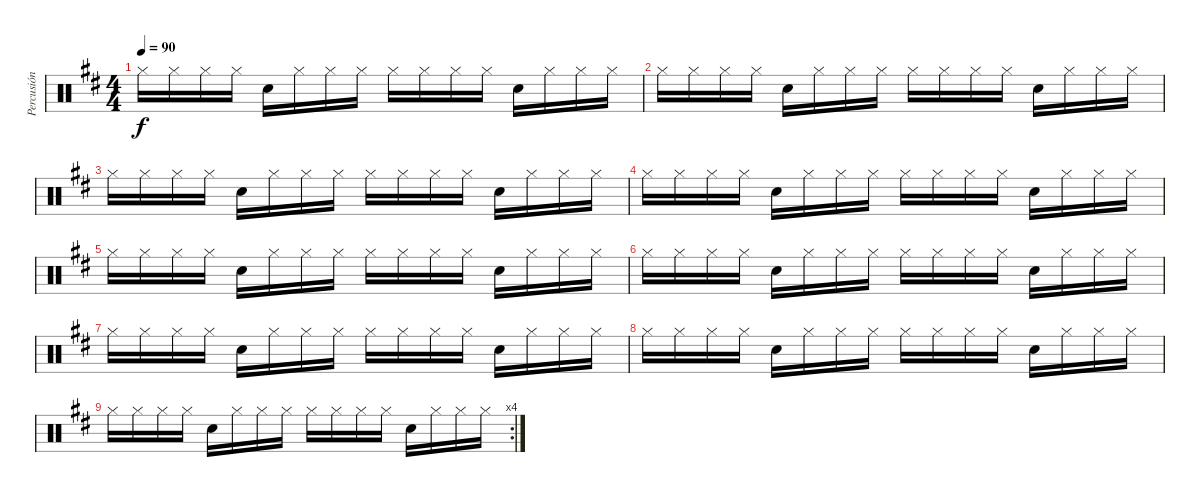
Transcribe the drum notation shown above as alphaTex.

\track ("Percusión" "Percusión") {instrument percussion}
\staff {score}
\articulation defaults
\ts (4 4)
\tempo 90
\clef neutral
\ks d "Hi-Hat (closed)".16{dy f} "Hi-Hat (closed)".16 "Hi-Hat (closed)".16 "Hi-Hat (closed)".16 "Snare (hit) 2".16 "Hi-Hat (closed)".16 "Hi-Hat (closed)".16 "Hi-Hat (closed)".16 "Hi-Hat (closed)".16 "Hi-Hat (closed)".16 "Hi-Hat (closed)".16 "Hi-Hat (closed)".16 "Snare (hit) 2".16 "Hi-Hat (closed)".16 "Hi-Hat (closed)".16 "Hi-Hat (closed)".16
|
"Hi-Hat (closed)".16 "Hi-Hat (closed)".16 "Hi-Hat (closed)".16 "Hi-Hat (closed)".16 "Snare (hit) 2".16 "Hi-Hat (closed)".16 "Hi-Hat (closed)".16 "Hi-Hat (closed)".16 "Hi-Hat (closed)".16 "Hi-Hat (closed)".16 "Hi-Hat (closed)".16 "Hi-Hat (closed)".16 "Snare (hit) 2".16 "Hi-Hat (closed)".16 "Hi-Hat (closed)".16 "Hi-Hat (closed)".16 |
"Hi-Hat (closed)".16 "Hi-Hat (closed)".16 "Hi-Hat (closed)".16 "Hi-Hat (closed)".16 "Snare (hit) 2".16 "Hi-Hat (closed)".16 "Hi-Hat (closed)".16 "Hi-Hat (closed)".16 "Hi-Hat (closed)".16 "Hi-Hat (closed)".16 "Hi-Hat (closed)".16 "Hi-Hat (closed)".16 "Snare (hit) 2".16 "Hi-Hat (closed)".16 "Hi-Hat (closed)".16 "Hi-Hat (closed)".16 |
"Hi-Hat (closed)".16 "Hi-Hat (closed)".16 "Hi-Hat (closed)".16 "Hi-Hat (closed)".16 "Snare (hit) 2".16 "Hi-Hat (closed)".16 "Hi-Hat (closed)".16 "Hi-Hat (closed)".16 "Hi-Hat (closed)".16 "Hi-Hat (closed)".16 "Hi-Hat (closed)".16 "Hi-Hat (closed)".16 "Snare (hit) 2".16 "Hi-Hat (closed)".16 "Hi-Hat (closed)".16 "Hi-Hat (closed)".16 |
"Hi-Hat (closed)".16 "Hi-Hat (closed)".16 "Hi-Hat (closed)".16 "Hi-Hat (closed)".16 "Snare (hit) 2".16 "Hi-Hat (closed)".16 "Hi-Hat (closed)".16 "Hi-Hat (closed)".16 "Hi-Hat (closed)".16 "Hi-Hat (closed)".16 "Hi-Hat (closed)".16 "Hi-Hat (closed)".16 "Snare (hit) 2".16 "Hi-Hat (closed)".16 "Hi-Hat (closed)".16 "Hi-Hat (closed)".16 |
"Hi-Hat (closed)".16 "Hi-Hat (closed)".16 "Hi-Hat (closed)".16 "Hi-Hat (closed)".16 "Snare (hit) 2".16 "Hi-Hat (closed)".16 "Hi-Hat (closed)".16 "Hi-Hat (closed)".16 "Hi-Hat (closed)".16 "Hi-Hat (closed)".16 "Hi-Hat (closed)".16 "Hi-Hat (closed)".16 "Snare (hit) 2".16 "Hi-Hat (closed)".16 "Hi-Hat (closed)".16 "Hi-Hat (closed)".16 |
"Hi-Hat (closed)".16 "Hi-Hat (closed)".16 "Hi-Hat (closed)".16 "Hi-Hat (closed)".16 "Snare (hit) 2".16 "Hi-Hat (closed)".16 "Hi-Hat (closed)".16 "Hi-Hat (closed)".16 "Hi-Hat (closed)".16 "Hi-Hat (closed)".16 "Hi-Hat (closed)".16 "Hi-Hat (closed)".16 "Snare (hit) 2".16 "Hi-Hat (closed)".16 "Hi-Hat (closed)".16 "Hi-Hat (closed)".16 |
"Hi-Hat (closed)".16 "Hi-Hat (closed)".16 "Hi-Hat (closed)".16 "Hi-Hat (closed)".16 "Snare (hit) 2".16 "Hi-Hat (closed)".16 "Hi-Hat (closed)".16 "Hi-Hat (closed)".16 "Hi-Hat (closed)".16 "Hi-Hat (closed)".16 "Hi-Hat (closed)".16 "Hi-Hat (closed)".16 "Snare (hit) 2".16 "Hi-Hat (closed)".16 "Hi-Hat (closed)".16 "Hi-Hat (closed)".16 |
\rc 4 "Hi-Hat (closed)".16 "Hi-Hat (closed)".16 "Hi-Hat (closed)".16 "Hi-Hat (closed)".16 "Snare (hit) 2".16 "Hi-Hat (closed)".16 "Hi-Hat (closed)".16 "Hi-Hat (closed)".16 "Hi-Hat (closed)".16 "Hi-Hat (closed)".16 "Hi-Hat (closed)".16 "Hi-Hat (closed)".16 "Snare (hit) 2".16 "Hi-Hat (closed)".16 "Hi-Hat (closed)".16 "Hi-Hat (closed)".16
